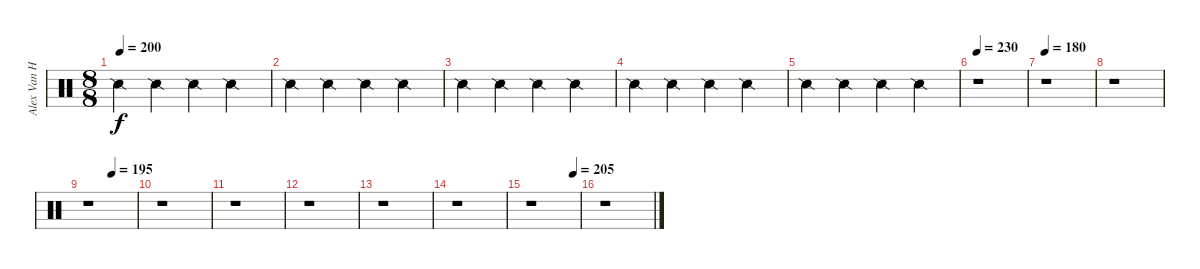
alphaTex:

\track ("Alex Van Halen" "Alex Van H") {instrument percussion}
\staff {score}
\articulation defaults
\ts (8 8)
\tempo 200
\clef neutral
\ks c "Snare (side stick) 2".4{dy f} "Snare (side stick) 2".4 "Snare (side stick) 2".4 "Snare (side stick) 2".4
|
"Snare (side stick) 2".4 "Snare (side stick) 2".4 "Snare (side stick) 2".4 "Snare (side stick) 2".4 |
"Snare (side stick) 2".4 "Snare (side stick) 2".4 "Snare (side stick) 2".4 "Snare (side stick) 2".4 |
"Snare (side stick) 2".4 "Snare (side stick) 2".4 "Snare (side stick) 2".4 "Snare (side stick) 2".4 |
"Snare (side stick) 2".4 "Snare (side stick) 2".4 "Snare (side stick) 2".4 "Snare (side stick) 2".4 |
\tempo 230
r.1 |
\tempo 180
r.1 |
r.1 |
\tempo (195 0.5)
r.1 |
r.1 |
r.1 |
r.1 |
r.1 |
r.1 |
\tempo (205 0.875)
r.1 |
r.1
